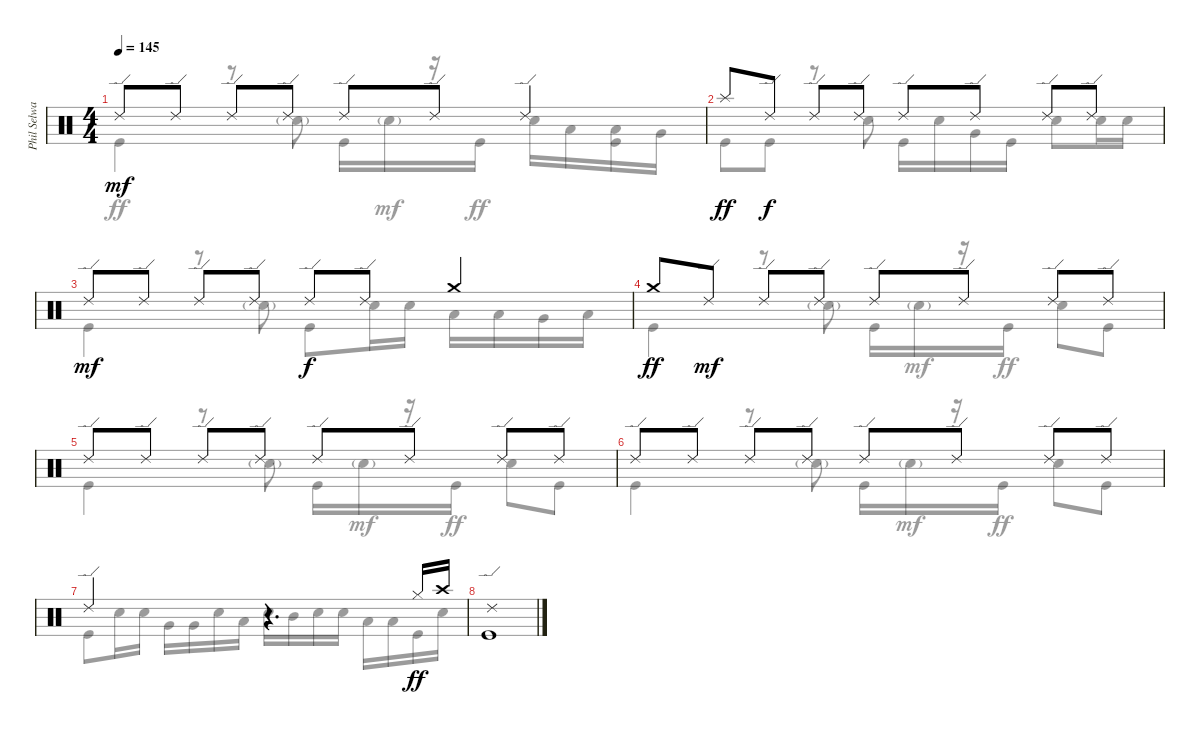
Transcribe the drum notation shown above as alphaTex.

\track ("Phil Selway" "Phil Selwa") {instrument percussion}
\staff {score}
\articulation defaults
\voice
\ts (4 4)
\tempo 145
\clef neutral
\ks c "Ride (edge) 2".8{dy mf} "Ride (edge) 2".8 "Ride (edge) 2".8 "Ride (edge) 2".8 "Ride (edge) 2".8 "Ride (edge) 2".8 "Ride (edge) 2".4
|
"Splash (hit)".8{dy ff} "Ride (edge) 2".8{dy f} "Ride (edge) 2".8 "Ride (edge) 2".8 "Ride (edge) 2".8 "Ride (edge) 2".8 "Ride (edge) 2".8 "Ride (edge) 2".8 |
"Ride (edge) 2".8{dy mf} "Ride (edge) 2".8 "Ride (edge) 2".8 "Ride (edge) 2".8 "Ride (edge) 2".8{dy f} "Ride (edge) 2".8 "Crash medium (hit)".4 |
"Crash medium (hit)".8{dy ff} "Ride (edge) 2".8{dy mf} "Ride (edge) 2".8 "Ride (edge) 2".8 "Ride (edge) 2".8 "Ride (edge) 2".8 "Ride (edge) 2".8 "Ride (edge) 2".8 |
"Ride (edge) 2".8 "Ride (edge) 2".8 "Ride (edge) 2".8 "Ride (edge) 2".8 "Ride (edge) 2".8 "Ride (edge) 2".8 "Ride (edge) 2".8 "Ride (edge) 2".8 |
"Ride (edge) 2".8 "Ride (edge) 2".8 "Ride (edge) 2".8 "Ride (edge) 2".8 "Ride (edge) 2".8 "Ride (edge) 2".8 "Ride (edge) 2".8 "Ride (edge) 2".8 |
"Ride (edge) 2".2 r.4{d} "Hi-Hat (closed)".16{dy ff} "Crash high (hit)".16 |
("Kick (hit)" "Ride (edge) 2").1 |
|
|
|
|
|
|
|
\voice
\clef neutral
\ottava regular
\simile none
\ks c "Kick (hit)".4{dy ff}
r.8 "Snare (hit) 2"{g}.8 "Kick (hit)".16 "Snare (hit) 2"{g}.16{dy mf} r.16 "Kick (hit)".16{dy ff} "Snare (hit) 2".16 "Low Tom (hit)".16 ("Low Tom (hit)" "Kick (hit)").16 "Very Low Tom (hit)".16 |
"Kick (hit)".8 "Kick (hit)".8 r.8 "Snare (hit) 2".8 "Kick (hit)".16 "Snare (hit) 2".16 "Very Low Tom (hit)".16 "Kick (hit)".16 "Snare (hit) 2".8 "Snare (hit) 2".16 "Snare (hit) 2".16 |
"Kick (hit)".4 r.8 "Snare (hit) 2"{g}.8 "Kick (hit)".8 "Snare (hit) 2".16 "Snare (hit) 2".16 "Low Tom (hit)".16 "Low Tom (hit)".16 "Very Low Tom (hit)".16 "Low Floor Tom (hit)".16 |
"Kick (hit)".4 r.8 "Snare (hit) 2"{g}.8 "Kick (hit)".16 "Snare (hit) 2"{g}.16{dy mf} r.16 "Kick (hit)".16{dy ff} "Snare (hit) 2".8 "Kick (hit)".8 |
"Kick (hit)".4 r.8 "Snare (hit) 2"{g}.8 "Kick (hit)".16 "Snare (hit) 2"{g}.16{dy mf} r.16 "Kick (hit)".16{dy ff} "Snare (hit) 2".8 "Kick (hit)".8 |
"Kick (hit)".4 r.8 "Snare (hit) 2"{g}.8 "Kick (hit)".16 "Snare (hit) 2"{g}.16{dy mf} r.16 "Kick (hit)".16{dy ff} "Snare (hit) 2".8 "Kick (hit)".8 |
"Kick (hit)".8 "Snare (hit) 2".16 "Snare (hit) 2".16 "Very Low Tom (hit)".16 "Very Low Tom (hit)".16 "Snare (hit) 2".16 "Low Tom (hit)".16 "Snare (hit) 2".16 "Mid Tom (hit)".16 "Snare (hit) 2".16 "Snare (hit) 2".16 "Low Tom (hit)".16 "Low Tom (hit)".16 "Kick (hit)".16 "Snare (hit) 2".16 |
|
|
|
|
|
|
|
|
